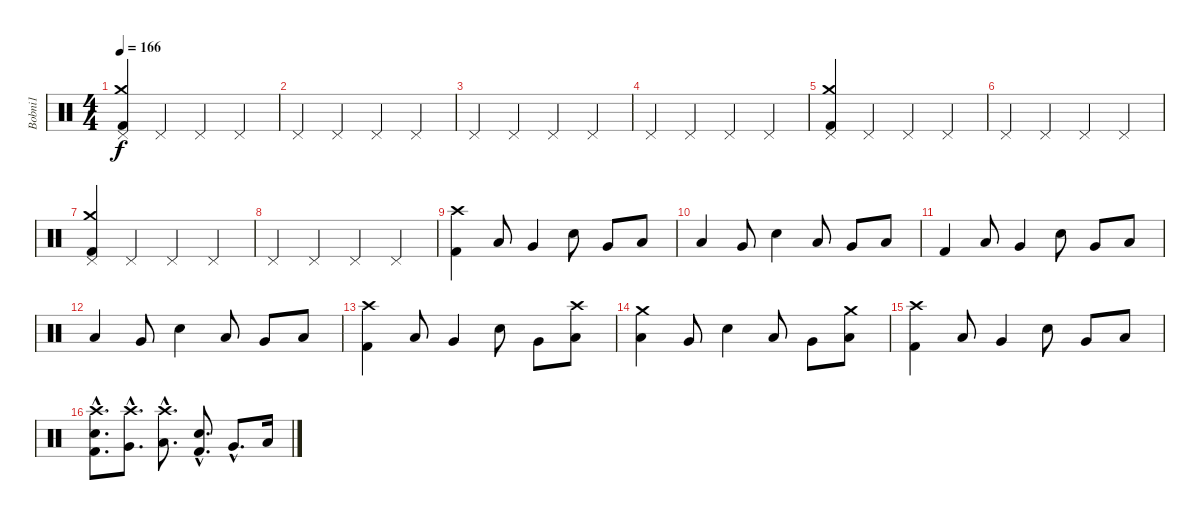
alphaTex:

\track ("Bobni1" "Bobni1") {instrument percussion}
\staff {score}
\articulation defaults
\ts (4 4)
\tempo 166
\clef neutral
\ks c
("Pedal Hi-Hat (hit)" "Crash medium (hit)" "Kick (hit) 2").4{dy f} "Pedal Hi-Hat (hit)".4 "Pedal Hi-Hat (hit)".4 "Pedal Hi-Hat (hit)".4 |
"Pedal Hi-Hat (hit)".4 "Pedal Hi-Hat (hit)".4 "Pedal Hi-Hat (hit)".4 "Pedal Hi-Hat (hit)".4 |
"Pedal Hi-Hat (hit)".4 "Pedal Hi-Hat (hit)".4 "Pedal Hi-Hat (hit)".4 "Pedal Hi-Hat (hit)".4 |
"Pedal Hi-Hat (hit)".4 "Pedal Hi-Hat (hit)".4 "Pedal Hi-Hat (hit)".4 "Pedal Hi-Hat (hit)".4 |
("Pedal Hi-Hat (hit)" "Crash medium (hit)" "Kick (hit) 2").4 "Pedal Hi-Hat (hit)".4 "Pedal Hi-Hat (hit)".4 "Pedal Hi-Hat (hit)".4 |
"Pedal Hi-Hat (hit)".4 "Pedal Hi-Hat (hit)".4 "Pedal Hi-Hat (hit)".4 "Pedal Hi-Hat (hit)".4 |
("Pedal Hi-Hat (hit)" "Crash medium (hit)" "Kick (hit) 2").4 "Pedal Hi-Hat (hit)".4 "Pedal Hi-Hat (hit)".4 "Pedal Hi-Hat (hit)".4 |
"Pedal Hi-Hat (hit)".4 "Pedal Hi-Hat (hit)".4 "Pedal Hi-Hat (hit)".4 "Pedal Hi-Hat (hit)".4 |
("Crash high (hit)" "Kick (hit) 2").4 "Low Floor Tom (hit)".8 "Very Low Tom (hit)".4 "Snare (hit) 2".8 "Very Low Tom (hit)".8 "Low Floor Tom (hit)".8 |
"Low Floor Tom (hit)".4 "Very Low Tom (hit)".8 "Snare (hit) 2".4 "Low Floor Tom (hit)".8 "Very Low Tom (hit)".8 "Low Floor Tom (hit)".8 |
"Kick (hit) 2".4 "Low Floor Tom (hit)".8 "Very Low Tom (hit)".4 "Snare (hit) 2".8 "Very Low Tom (hit)".8 "Low Floor Tom (hit)".8 |
"Low Floor Tom (hit)".4 "Very Low Tom (hit)".8 "Snare (hit) 2".4 "Low Floor Tom (hit)".8 "Very Low Tom (hit)".8 "Low Floor Tom (hit)".8 |
("Crash high (hit)" "Kick (hit) 2").4 "Low Floor Tom (hit)".8 "Very Low Tom (hit)".4 "Snare (hit) 2".8 "Very Low Tom (hit)".8 ("Crash high (hit)" "Low Floor Tom (hit)").8 |
("Crash medium (hit)" "Low Floor Tom (hit)").4 "Very Low Tom (hit)".8 "Snare (hit) 2".4 "Low Floor Tom (hit)".8 "Very Low Tom (hit)".8 ("Crash medium (hit)" "Low Floor Tom (hit)").8 |
("Crash high (hit)" "Kick (hit) 2").4 "Low Floor Tom (hit)".8 "Very Low Tom (hit)".4 "Snare (hit) 2".8 "Very Low Tom (hit)".8 "Low Floor Tom (hit)".8 |
("Crash high (hit)"{hac} "Snare (hit) 2"{hac} "Kick (hit) 2"{hac}).8{d} ("Crash high (hit)"{hac} "Very Low Tom (hit)"{hac}).8{d} ("Crash high (hit)"{hac} "Low Floor Tom (hit)"{hac}).8{d} ("Snare (hit) 2"{hac} "Kick (hit) 2"{hac}).8{d} "Very Low Tom (hit)"{hac}.8{d} "Low Floor Tom (hit)".16
